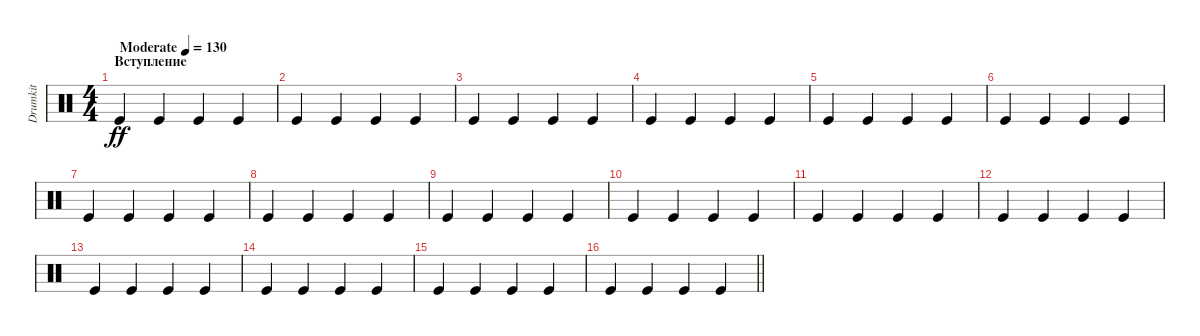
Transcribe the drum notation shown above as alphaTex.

\track ("Drumkit" "Drumkit") {instrument percussion}
\staff {score}
\articulation defaults
\ts (4 4)
\section ("" "Вступление")
\tempo (130 "Moderate")
\clef neutral
\ks c "Kick (hit)".4{dy ff} "Kick (hit)".4 "Kick (hit)".4 "Kick (hit)".4
|
"Kick (hit)".4 "Kick (hit)".4 "Kick (hit)".4 "Kick (hit)".4 |
"Kick (hit)".4 "Kick (hit)".4 "Kick (hit)".4 "Kick (hit)".4 |
"Kick (hit)".4 "Kick (hit)".4 "Kick (hit)".4 "Kick (hit)".4 |
"Kick (hit)".4 "Kick (hit)".4 "Kick (hit)".4 "Kick (hit)".4 |
"Kick (hit)".4 "Kick (hit)".4 "Kick (hit)".4 "Kick (hit)".4 |
"Kick (hit)".4 "Kick (hit)".4 "Kick (hit)".4 "Kick (hit)".4 |
"Kick (hit)".4 "Kick (hit)".4 "Kick (hit)".4 "Kick (hit)".4 |
"Kick (hit)".4 "Kick (hit)".4 "Kick (hit)".4 "Kick (hit)".4 |
"Kick (hit)".4 "Kick (hit)".4 "Kick (hit)".4 "Kick (hit)".4 |
"Kick (hit)".4 "Kick (hit)".4 "Kick (hit)".4 "Kick (hit)".4 |
"Kick (hit)".4 "Kick (hit)".4 "Kick (hit)".4 "Kick (hit)".4 |
"Kick (hit)".4 "Kick (hit)".4 "Kick (hit)".4 "Kick (hit)".4 |
"Kick (hit)".4 "Kick (hit)".4 "Kick (hit)".4 "Kick (hit)".4 |
"Kick (hit)".4 "Kick (hit)".4 "Kick (hit)".4 "Kick (hit)".4 |
\barLineRight lightlight "Kick (hit)".4 "Kick (hit)".4 "Kick (hit)".4 "Kick (hit)".4
